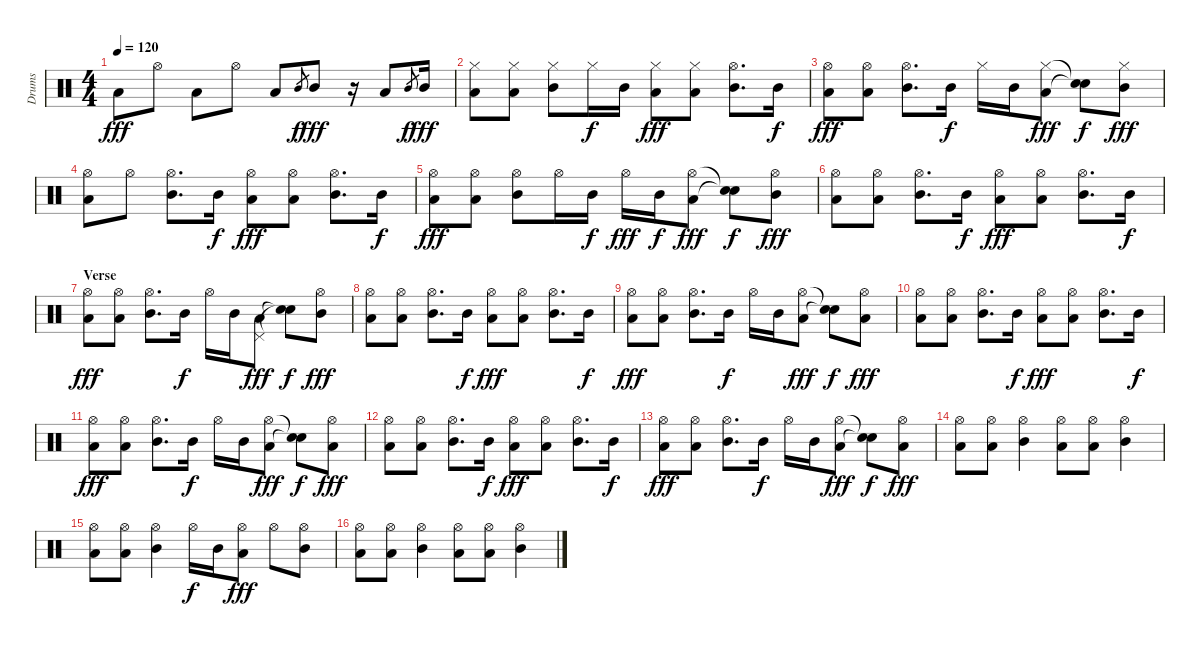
\track ("Drums" "Drums") {instrument percussion}
\staff {score}
\articulation defaults
\ts (4 4)
\tempo 120
\clef neutral
\ks c "Low Floor Tom (hit)".8{dy fff} "Hi-Hat (open)".8 "Low Floor Tom (hit)".8 "Hi-Hat (open)".8 "Low Floor Tom (hit)".8 "Mid Tom (hit)".8{gr dy f} "Mid Tom (hit)".8{dy fff}
r.16 "Low Floor Tom (hit)".8 "Mid Tom (hit)".8{gr dy f} "Mid Tom (hit)".16{dy fff} |
("Hi-Hat (closed)" "Low Floor Tom (hit)").8 ("Hi-Hat (closed)" "Low Floor Tom (hit)").8 ("Hi-Hat (closed)" "Mid Tom (hit)").8 "Hi-Hat (closed)".16{dy f} "Mid Tom (hit)".16 ("Hi-Hat (closed)" "Low Floor Tom (hit)").8{dy fff} ("Hi-Hat (closed)" "Low Floor Tom (hit)").8 ("Hi-Hat (open)" "Mid Tom (hit)").8{d} "Mid Tom (hit)".16{dy f} |
("Hi-Hat (open)" "Low Floor Tom (hit)").8{dy fff} ("Hi-Hat (open)" "Low Floor Tom (hit)").8 ("Hi-Hat (open)" "Mid Tom (hit)").8{d} "Mid Tom (hit)".16{dy f} "Hi-Hat (closed)".16 "Mid Tom (hit)".16 ("Hi-Hat (closed)" "Low Floor Tom (hit)").8{dy fff} ("Snare (hit)"{t} "Snare (hit)"{t}).8{dy f} ("Hi-Hat (closed)" "Mid Tom (hit)").8{dy fff} |
("Hi-Hat (open)" "Low Floor Tom (hit)").8 "Hi-Hat (open)".8 ("Hi-Hat (open)" "Mid Tom (hit)").8{d} "Mid Tom (hit)".16{dy f} ("Hi-Hat (open)" "Low Floor Tom (hit)").8{dy fff} ("Hi-Hat (open)" "Low Floor Tom (hit)").8 ("Hi-Hat (open)" "Mid Tom (hit)").8{d} "Mid Tom (hit)".16{dy f} |
("Hi-Hat (open)" "Low Floor Tom (hit)").8{dy fff} ("Hi-Hat (open)" "Low Floor Tom (hit)").8 ("Hi-Hat (open)" "Mid Tom (hit)").8 "Hi-Hat (open)".16 "Mid Tom (hit)".16{dy f} "Hi-Hat (open)".16{dy fff} "Mid Tom (hit)".16{dy f} ("Hi-Hat (open)" "Low Floor Tom (hit)").8{dy fff} ("Snare (hit)"{t} "Snare (hit)"{t}).8{dy f} ("Hi-Hat (open)" "Mid Tom (hit)").8{dy fff} |
("Hi-Hat (open)" "Low Floor Tom (hit)").8 ("Hi-Hat (open)" "Low Floor Tom (hit)").8 ("Hi-Hat (open)" "Mid Tom (hit)").8{d} "Mid Tom (hit)".16{dy f} ("Hi-Hat (open)" "Low Floor Tom (hit)").8{dy fff} ("Hi-Hat (open)" "Low Floor Tom (hit)").8 ("Hi-Hat (open)" "Mid Tom (hit)").8{d} "Mid Tom (hit)".16{dy f} |
\section ("" "Verse")
("Hi-Hat (open)" "Low Floor Tom (hit)").8{dy fff} ("Hi-Hat (open)" "Low Floor Tom (hit)").8 ("Hi-Hat (open)" "Mid Tom (hit)").8{d} "Mid Tom (hit)".16{dy f} "Hi-Hat (open)".16 "Mid Tom (hit)".16 ("Pedal Hi-Hat (hit)" "Low Floor Tom (hit)").8{dy fff} ("Snare (hit)"{t} "Snare (hit)"{t}).8{dy f} ("Hi-Hat (open)" "Mid Tom (hit)").8{dy fff} |
("Hi-Hat (open)" "Low Floor Tom (hit)").8 ("Hi-Hat (open)" "Low Floor Tom (hit)").8 ("Hi-Hat (open)" "Mid Tom (hit)").8{d} "Mid Tom (hit)".16{dy f} ("Hi-Hat (open)" "Low Floor Tom (hit)").8{dy fff} ("Hi-Hat (open)" "Low Floor Tom (hit)").8 ("Hi-Hat (open)" "Mid Tom (hit)").8{d} "Mid Tom (hit)".16{dy f} |
("Hi-Hat (open)" "Low Floor Tom (hit)").8{dy fff} ("Hi-Hat (open)" "Low Floor Tom (hit)").8 ("Hi-Hat (open)" "Mid Tom (hit)").8{d} "Mid Tom (hit)".16{dy f} "Hi-Hat (open)".16 "Mid Tom (hit)".16 ("Hi-Hat (open)" "Low Floor Tom (hit)").8{dy fff} ("Snare (hit)"{t} "Snare (hit)"{t}).8{dy f} ("Hi-Hat (open)" "Low Floor Tom (hit)").8{dy fff} |
("Hi-Hat (open)" "Low Floor Tom (hit)").8 ("Hi-Hat (open)" "Low Floor Tom (hit)").8 ("Hi-Hat (open)" "Mid Tom (hit)").8{d} "Mid Tom (hit)".16{dy f} ("Hi-Hat (open)" "Low Floor Tom (hit)").8{dy fff} ("Hi-Hat (open)" "Low Floor Tom (hit)").8 ("Hi-Hat (open)" "Mid Tom (hit)").8{d} "Mid Tom (hit)".16{dy f} |
("Hi-Hat (open)" "Low Floor Tom (hit)").8{dy fff} ("Hi-Hat (open)" "Low Floor Tom (hit)").8 ("Hi-Hat (open)" "Mid Tom (hit)").8{d} "Mid Tom (hit)".16{dy f} "Hi-Hat (open)".16 "Mid Tom (hit)".16 ("Hi-Hat (open)" "Low Floor Tom (hit)").8{dy fff} ("Snare (hit)"{t} "Snare (hit)"{t}).8{dy f} ("Hi-Hat (open)" "Low Floor Tom (hit)").8{dy fff} |
("Hi-Hat (open)" "Low Floor Tom (hit)").8 ("Hi-Hat (open)" "Low Floor Tom (hit)").8 ("Hi-Hat (open)" "Mid Tom (hit)").8{d} "Mid Tom (hit)".16{dy f} ("Hi-Hat (open)" "Low Floor Tom (hit)").8{dy fff} ("Hi-Hat (open)" "Low Floor Tom (hit)").8 ("Hi-Hat (open)" "Mid Tom (hit)").8{d} "Mid Tom (hit)".16{dy f} |
("Hi-Hat (open)" "Low Floor Tom (hit)").8{dy fff} ("Hi-Hat (open)" "Low Floor Tom (hit)").8 ("Hi-Hat (open)" "Mid Tom (hit)").8{d} "Mid Tom (hit)".16{dy f} "Hi-Hat (open)".16 "Mid Tom (hit)".16 ("Hi-Hat (open)" "Low Floor Tom (hit)").8{dy fff} ("Snare (hit)"{t} "Snare (hit)"{t}).8{dy f} ("Hi-Hat (open)" "Low Floor Tom (hit)").8{dy fff} |
("Hi-Hat (open)" "Low Floor Tom (hit)").8 ("Hi-Hat (open)" "Low Floor Tom (hit)").8 ("Hi-Hat (open)" "Mid Tom (hit)").4 ("Hi-Hat (open)" "Low Floor Tom (hit)").8 ("Hi-Hat (open)" "Low Floor Tom (hit)").8 ("Hi-Hat (open)" "Mid Tom (hit)").4 |
("Hi-Hat (open)" "Low Floor Tom (hit)").8 ("Hi-Hat (open)" "Low Floor Tom (hit)").8 ("Hi-Hat (open)" "Mid Tom (hit)").4 "Hi-Hat (open)".16{dy f} "Mid Tom (hit)".16 ("Hi-Hat (open)" "Low Floor Tom (hit)").8{dy fff} "Hi-Hat (open)".8 ("Hi-Hat (open)" "Mid Tom (hit)").8 |
("Hi-Hat (open)" "Low Floor Tom (hit)").8 ("Hi-Hat (open)" "Low Floor Tom (hit)").8 ("Hi-Hat (open)" "Mid Tom (hit)").4 ("Hi-Hat (open)" "Low Floor Tom (hit)").8 ("Hi-Hat (open)" "Low Floor Tom (hit)").8 ("Hi-Hat (open)" "Mid Tom (hit)").4
